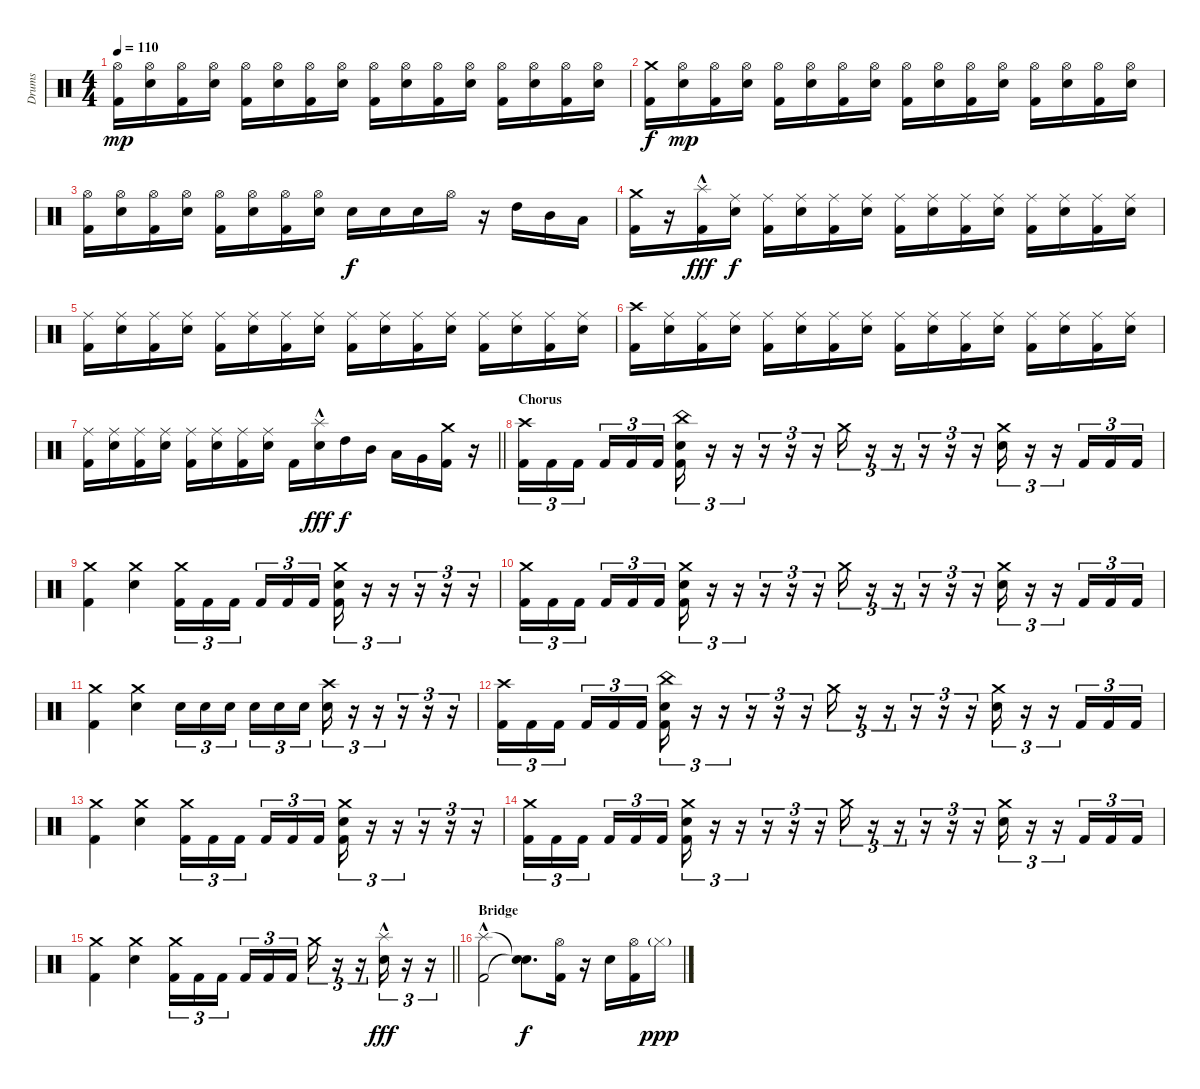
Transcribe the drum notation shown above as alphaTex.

\track ("Drums" "Drums") {instrument percussion}
\staff {score}
\articulation defaults
\ts (4 4)
\tempo 110
\clef neutral
\ks c
("Hi-Hat (open)" "Kick (hit) 2").16{dy mp} ("Hi-Hat (open)" "Electric Snare (hit)").16 ("Hi-Hat (open)" "Kick (hit) 2").16 ("Hi-Hat (open)" "Electric Snare (hit)").16 ("Hi-Hat (open)" "Kick (hit) 2").16 ("Hi-Hat (open)" "Electric Snare (hit)").16 ("Hi-Hat (open)" "Kick (hit) 2").16 ("Hi-Hat (open)" "Electric Snare (hit)").16 ("Hi-Hat (open)" "Kick (hit) 2").16 ("Hi-Hat (open)" "Electric Snare (hit)").16 ("Hi-Hat (open)" "Kick (hit) 2").16 ("Hi-Hat (open)" "Electric Snare (hit)").16 ("Hi-Hat (open)" "Kick (hit) 2").16 ("Hi-Hat (open)" "Electric Snare (hit)").16 ("Hi-Hat (open)" "Kick (hit) 2").16 ("Hi-Hat (open)" "Electric Snare (hit)").16 |
("Crash medium (hit)" "Kick (hit) 2").16{dy f} ("Hi-Hat (open)" "Electric Snare (hit)").16{dy mp} ("Hi-Hat (open)" "Kick (hit) 2").16 ("Hi-Hat (open)" "Electric Snare (hit)").16 ("Hi-Hat (open)" "Kick (hit) 2").16 ("Hi-Hat (open)" "Electric Snare (hit)").16 ("Hi-Hat (open)" "Kick (hit) 2").16 ("Hi-Hat (open)" "Electric Snare (hit)").16 ("Hi-Hat (open)" "Kick (hit) 2").16 ("Hi-Hat (open)" "Electric Snare (hit)").16 ("Hi-Hat (open)" "Kick (hit) 2").16 ("Hi-Hat (open)" "Electric Snare (hit)").16 ("Hi-Hat (open)" "Kick (hit) 2").16 ("Hi-Hat (open)" "Electric Snare (hit)").16 ("Hi-Hat (open)" "Kick (hit) 2").16 ("Hi-Hat (open)" "Electric Snare (hit)").16 |
("Hi-Hat (open)" "Kick (hit) 2").16 ("Hi-Hat (open)" "Electric Snare (hit)").16 ("Hi-Hat (open)" "Kick (hit) 2").16 ("Hi-Hat (open)" "Electric Snare (hit)").16 ("Hi-Hat (open)" "Kick (hit) 2").16 ("Hi-Hat (open)" "Electric Snare (hit)").16 ("Hi-Hat (open)" "Kick (hit) 2").16 ("Hi-Hat (open)" "Electric Snare (hit)").16 "Electric Snare (hit)".16{dy f} "Electric Snare (hit)".16 "Electric Snare (hit)".16 "Hi-Hat (open)".16 r.16 "High Tom (hit)".16 "Mid Tom (hit)".16 "Low Tom (hit)".16 |
("Crash medium (hit)" "Kick (hit) 2").16 r.16 ("Splash (hit)"{hac} "Kick (hit) 2").16{dy fff} ("Ride (middle)" "Electric Snare (hit)").16{dy f} ("Ride (middle)" "Kick (hit) 2").16 ("Ride (middle)" "Electric Snare (hit)").16 ("Ride (middle)" "Kick (hit) 2").16 ("Ride (middle)" "Electric Snare (hit)").16 ("Ride (middle)" "Kick (hit) 2").16 ("Ride (middle)" "Electric Snare (hit)").16 ("Ride (middle)" "Kick (hit) 2").16 ("Ride (middle)" "Electric Snare (hit)").16 ("Ride (middle)" "Kick (hit) 2").16 ("Ride (middle)" "Electric Snare (hit)").16 ("Ride (middle)" "Kick (hit) 2").16 ("Ride (middle)" "Electric Snare (hit)").16 |
("Ride (middle)" "Kick (hit) 2").16 ("Ride (middle)" "Electric Snare (hit)").16 ("Ride (middle)" "Kick (hit) 2").16 ("Ride (middle)" "Electric Snare (hit)").16 ("Ride (middle)" "Kick (hit) 2").16 ("Ride (middle)" "Electric Snare (hit)").16 ("Ride (middle)" "Kick (hit) 2").16 ("Ride (middle)" "Electric Snare (hit)").16 ("Ride (middle)" "Kick (hit) 2").16 ("Ride (middle)" "Electric Snare (hit)").16 ("Ride (middle)" "Kick (hit) 2").16 ("Ride (middle)" "Electric Snare (hit)").16 ("Ride (middle)" "Kick (hit) 2").16 ("Ride (middle)" "Electric Snare (hit)").16 ("Ride (middle)" "Kick (hit) 2").16 ("Ride (middle)" "Electric Snare (hit)").16 |
("Crash high (hit)" "Kick (hit) 2").16 ("Ride (middle)" "Electric Snare (hit)").16 ("Ride (middle)" "Kick (hit) 2").16 ("Ride (middle)" "Electric Snare (hit)").16 ("Ride (middle)" "Kick (hit) 2").16 ("Ride (middle)" "Electric Snare (hit)").16 ("Ride (middle)" "Kick (hit) 2").16 ("Ride (middle)" "Electric Snare (hit)").16 ("Ride (middle)" "Kick (hit) 2").16 ("Ride (middle)" "Electric Snare (hit)").16 ("Ride (middle)" "Kick (hit) 2").16 ("Ride (middle)" "Electric Snare (hit)").16 ("Ride (middle)" "Kick (hit) 2").16 ("Ride (middle)" "Electric Snare (hit)").16 ("Ride (middle)" "Kick (hit) 2").16 ("Ride (middle)" "Electric Snare (hit)").16 |
\barLineRight lightlight
("Ride (middle)" "Kick (hit) 2").16 ("Ride (middle)" "Electric Snare (hit)").16 ("Ride (middle)" "Kick (hit) 2").16 ("Ride (middle)" "Electric Snare (hit)").16 ("Ride (middle)" "Kick (hit) 2").16 ("Ride (middle)" "Electric Snare (hit)").16 ("Ride (middle)" "Kick (hit) 2").16 ("Ride (middle)" "Electric Snare (hit)").16 "Kick (hit) 2".16 ("Splash (hit)"{hac} "Electric Snare (hit)").16{dy fff} "High Tom (hit)".16{dy f} "Mid Tom (hit)".16 "Low Tom (hit)".16 "Very Low Tom (hit)".16 ("Crash medium (hit)" "Kick (hit) 2").16 r.16 |
\section ("" "Chorus")
("Crash high (hit)" "Kick (hit) 2").16{tu (3 2)} "Kick (hit) 2".16{tu (3 2)} "Kick (hit) 2".16{tu (3 2) beam splitsecondary} "Kick (hit) 2".16{tu (3 2)} "Kick (hit) 2".16{tu (3 2)} "Kick (hit) 2".16{tu (3 2)} ("China (hit)" "Electric Snare (hit)" "Kick (hit) 2").16{tu (3 2)} r.16{tu (3 2)} r.16{tu (3 2)} r.16{tu (3 2)} r.16{tu (3 2)} r.16{tu (3 2)} "Crash medium (hit)".16{tu (3 2)} r.16{tu (3 2)} r.16{tu (3 2)} r.16{tu (3 2)} r.16{tu (3 2)} r.16{tu (3 2)} ("Crash medium (hit)" "Electric Snare (hit)").16{tu (3 2)} r.16{tu (3 2)} r.16{tu (3 2)} "Kick (hit) 2".16{tu (3 2)} "Kick (hit) 2".16{tu (3 2)} "Kick (hit) 2".16{tu (3 2)} |
("Crash medium (hit)" "Kick (hit) 2").4 ("Crash medium (hit)" "Electric Snare (hit)").4 ("Crash medium (hit)" "Kick (hit) 2").16{tu (3 2)} "Kick (hit) 2".16{tu (3 2)} "Kick (hit) 2".16{tu (3 2) beam splitsecondary} "Kick (hit) 2".16{tu (3 2)} "Kick (hit) 2".16{tu (3 2)} "Kick (hit) 2".16{tu (3 2)} ("Crash medium (hit)" "Electric Snare (hit)" "Kick (hit) 2").16{tu (3 2)} r.16{tu (3 2)} r.16{tu (3 2)} r.16{tu (3 2)} r.16{tu (3 2)} r.16{tu (3 2)} |
("Crash medium (hit)" "Kick (hit) 2").16{tu (3 2)} "Kick (hit) 2".16{tu (3 2)} "Kick (hit) 2".16{tu (3 2) beam splitsecondary} "Kick (hit) 2".16{tu (3 2)} "Kick (hit) 2".16{tu (3 2)} "Kick (hit) 2".16{tu (3 2)} ("Crash medium (hit)" "Electric Snare (hit)" "Kick (hit) 2").16{tu (3 2)} r.16{tu (3 2)} r.16{tu (3 2)} r.16{tu (3 2)} r.16{tu (3 2)} r.16{tu (3 2)} "Crash medium (hit)".16{tu (3 2)} r.16{tu (3 2)} r.16{tu (3 2)} r.16{tu (3 2)} r.16{tu (3 2)} r.16{tu (3 2)} ("Crash medium (hit)" "Electric Snare (hit)").16{tu (3 2)} r.16{tu (3 2)} r.16{tu (3 2)} "Kick (hit) 2".16{tu (3 2)} "Kick (hit) 2".16{tu (3 2)} "Kick (hit) 2".16{tu (3 2)} |
("Crash medium (hit)" "Kick (hit) 2").4 ("Crash medium (hit)" "Electric Snare (hit)").4 "Electric Snare (hit)".16{tu (3 2)} "Electric Snare (hit)".16{tu (3 2)} "Electric Snare (hit)".16{tu (3 2) beam splitsecondary} "Electric Snare (hit)".16{tu (3 2)} "Electric Snare (hit)".16{tu (3 2)} "Electric Snare (hit)".16{tu (3 2)} ("Crash high (hit)" "Electric Snare (hit)").16{tu (3 2)} r.16{tu (3 2)} r.16{tu (3 2)} r.16{tu (3 2)} r.16{tu (3 2)} r.16{tu (3 2)} |
("Crash high (hit)" "Kick (hit) 2").16{tu (3 2)} "Kick (hit) 2".16{tu (3 2)} "Kick (hit) 2".16{tu (3 2) beam splitsecondary} "Kick (hit) 2".16{tu (3 2)} "Kick (hit) 2".16{tu (3 2)} "Kick (hit) 2".16{tu (3 2)} ("China (hit)" "Electric Snare (hit)" "Kick (hit) 2").16{tu (3 2)} r.16{tu (3 2)} r.16{tu (3 2)} r.16{tu (3 2)} r.16{tu (3 2)} r.16{tu (3 2)} "Crash medium (hit)".16{tu (3 2)} r.16{tu (3 2)} r.16{tu (3 2)} r.16{tu (3 2)} r.16{tu (3 2)} r.16{tu (3 2)} ("Crash medium (hit)" "Electric Snare (hit)").16{tu (3 2)} r.16{tu (3 2)} r.16{tu (3 2)} "Kick (hit) 2".16{tu (3 2)} "Kick (hit) 2".16{tu (3 2)} "Kick (hit) 2".16{tu (3 2)} |
("Crash medium (hit)" "Kick (hit) 2").4 ("Crash medium (hit)" "Electric Snare (hit)").4 ("Crash medium (hit)" "Kick (hit) 2").16{tu (3 2)} "Kick (hit) 2".16{tu (3 2)} "Kick (hit) 2".16{tu (3 2) beam splitsecondary} "Kick (hit) 2".16{tu (3 2)} "Kick (hit) 2".16{tu (3 2)} "Kick (hit) 2".16{tu (3 2)} ("Crash medium (hit)" "Electric Snare (hit)" "Kick (hit) 2").16{tu (3 2)} r.16{tu (3 2)} r.16{tu (3 2)} r.16{tu (3 2)} r.16{tu (3 2)} r.16{tu (3 2)} |
("Crash medium (hit)" "Kick (hit) 2").16{tu (3 2)} "Kick (hit) 2".16{tu (3 2)} "Kick (hit) 2".16{tu (3 2) beam splitsecondary} "Kick (hit) 2".16{tu (3 2)} "Kick (hit) 2".16{tu (3 2)} "Kick (hit) 2".16{tu (3 2)} ("Crash medium (hit)" "Electric Snare (hit)" "Kick (hit) 2").16{tu (3 2)} r.16{tu (3 2)} r.16{tu (3 2)} r.16{tu (3 2)} r.16{tu (3 2)} r.16{tu (3 2)} "Crash medium (hit)".16{tu (3 2)} r.16{tu (3 2)} r.16{tu (3 2)} r.16{tu (3 2)} r.16{tu (3 2)} r.16{tu (3 2)} ("Crash medium (hit)" "Electric Snare (hit)").16{tu (3 2)} r.16{tu (3 2)} r.16{tu (3 2)} "Kick (hit) 2".16{tu (3 2)} "Kick (hit) 2".16{tu (3 2)} "Kick (hit) 2".16{tu (3 2)} |
\barLineRight lightlight
("Crash medium (hit)" "Kick (hit) 2").4 ("Crash medium (hit)" "Electric Snare (hit)").4 ("Crash medium (hit)" "Kick (hit) 2").16{tu (3 2)} "Kick (hit) 2".16{tu (3 2)} "Kick (hit) 2".16{tu (3 2) beam splitsecondary} "Kick (hit) 2".16{tu (3 2)} "Kick (hit) 2".16{tu (3 2)} "Kick (hit) 2".16{tu (3 2)} "Crash medium (hit)".16{tu (3 2)} r.16{tu (3 2)} r.16{tu (3 2)} ("Splash (hit)"{hac} "Electric Snare (hit)").16{tu (3 2) dy fff} r.16{tu (3 2)} r.16{tu (3 2)} |
\section ("" "Bridge")
("Splash (hit)"{hac} "Kick (hit) 2").2 ("Snare (hit)"{t} "Snare (hit)"{t}).8{d dy f} ("Hi-Hat (open)" "Kick (hit) 2").16 r.16 "Electric Snare (hit)".16 ("Hi-Hat (open)" "Kick (hit) 2").16 "Hi-Hat (closed)"{g}.16{dy ppp}
